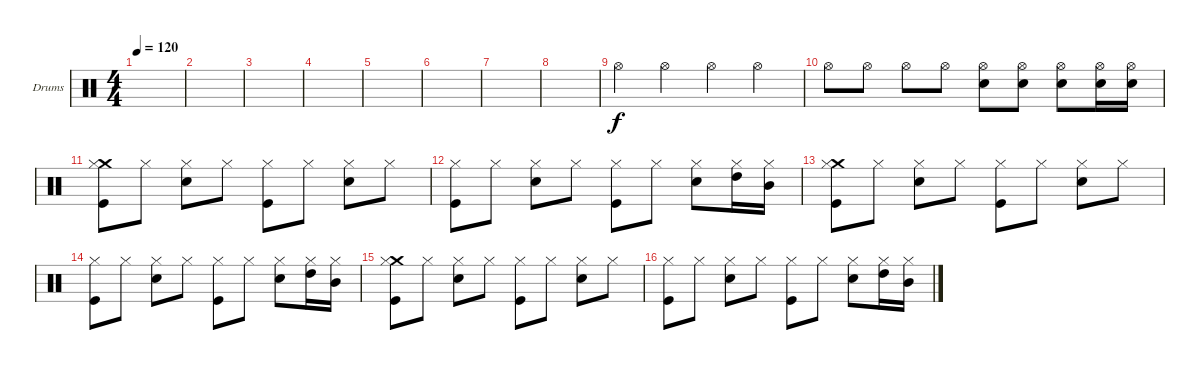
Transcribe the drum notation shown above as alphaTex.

\bracketExtendMode groupsimilarinstruments
\firstSystemTrackNameOrientation horizontal
\otherSystemsTrackNameOrientation horizontal
\track ("Drumkit" "Drums") {instrument percussion}
\staff {score}
\articulation defaults
\ts (4 4)
\tempo 120
\clef neutral
\ks c
|
|
|
|
|
|
|
|
"Hi-Hat (open)".4 "Hi-Hat (open)".4 "Hi-Hat (open)".4 "Hi-Hat (open)".4 |
"Hi-Hat (open)".8 "Hi-Hat (open)".8 "Hi-Hat (open)".8 "Hi-Hat (open)".8 ("Snare (hit) 2" "Hi-Hat (open)").8 ("Snare (hit) 2" "Hi-Hat (open)").8 ("Snare (hit) 2" "Hi-Hat (open)").8 ("Snare (hit) 2" "Hi-Hat (open)").16 ("Snare (hit) 2" "Hi-Hat (open)").16 |
("Crash medium (hit)" "Kick (hit)" "Hi-Hat (closed)").8 "Hi-Hat (closed)".8 ("Snare (hit) 2" "Hi-Hat (closed)").8 "Hi-Hat (closed)".8 ("Kick (hit)" "Hi-Hat (closed)").8 "Hi-Hat (closed)".8 ("Snare (hit) 2" "Hi-Hat (closed)").8 "Hi-Hat (closed)".8 |
("Kick (hit)" "Hi-Hat (closed)").8 "Hi-Hat (closed)".8 ("Snare (hit) 2" "Hi-Hat (closed)").8 "Hi-Hat (closed)".8 ("Kick (hit)" "Hi-Hat (closed)").8 "Hi-Hat (closed)".8 ("Snare (hit) 2" "Hi-Hat (closed)").8 ("High Tom (hit)" "Hi-Hat (closed)").16 ("Mid Tom (hit)" "Hi-Hat (closed)").16 |
("Crash medium (hit)" "Kick (hit)" "Hi-Hat (closed)").8 "Hi-Hat (closed)".8 ("Snare (hit) 2" "Hi-Hat (closed)").8 "Hi-Hat (closed)".8 ("Kick (hit)" "Hi-Hat (closed)").8 "Hi-Hat (closed)".8 ("Snare (hit) 2" "Hi-Hat (closed)").8 "Hi-Hat (closed)".8 |
("Kick (hit)" "Hi-Hat (closed)").8 "Hi-Hat (closed)".8 ("Snare (hit) 2" "Hi-Hat (closed)").8 "Hi-Hat (closed)".8 ("Kick (hit)" "Hi-Hat (closed)").8 "Hi-Hat (closed)".8 ("Snare (hit) 2" "Hi-Hat (closed)").8 ("High Tom (hit)" "Hi-Hat (closed)").16 ("Mid Tom (hit)" "Hi-Hat (closed)").16 |
("Crash medium (hit)" "Kick (hit)" "Hi-Hat (closed)").8 "Hi-Hat (closed)".8 ("Snare (hit) 2" "Hi-Hat (closed)").8 "Hi-Hat (closed)".8 ("Kick (hit)" "Hi-Hat (closed)").8 "Hi-Hat (closed)".8 ("Snare (hit) 2" "Hi-Hat (closed)").8 "Hi-Hat (closed)".8 |
("Kick (hit)" "Hi-Hat (closed)").8 "Hi-Hat (closed)".8 ("Snare (hit) 2" "Hi-Hat (closed)").8 "Hi-Hat (closed)".8 ("Kick (hit)" "Hi-Hat (closed)").8 "Hi-Hat (closed)".8 ("Snare (hit) 2" "Hi-Hat (closed)").8 ("High Tom (hit)" "Hi-Hat (closed)").16 ("Mid Tom (hit)" "Hi-Hat (closed)").16
